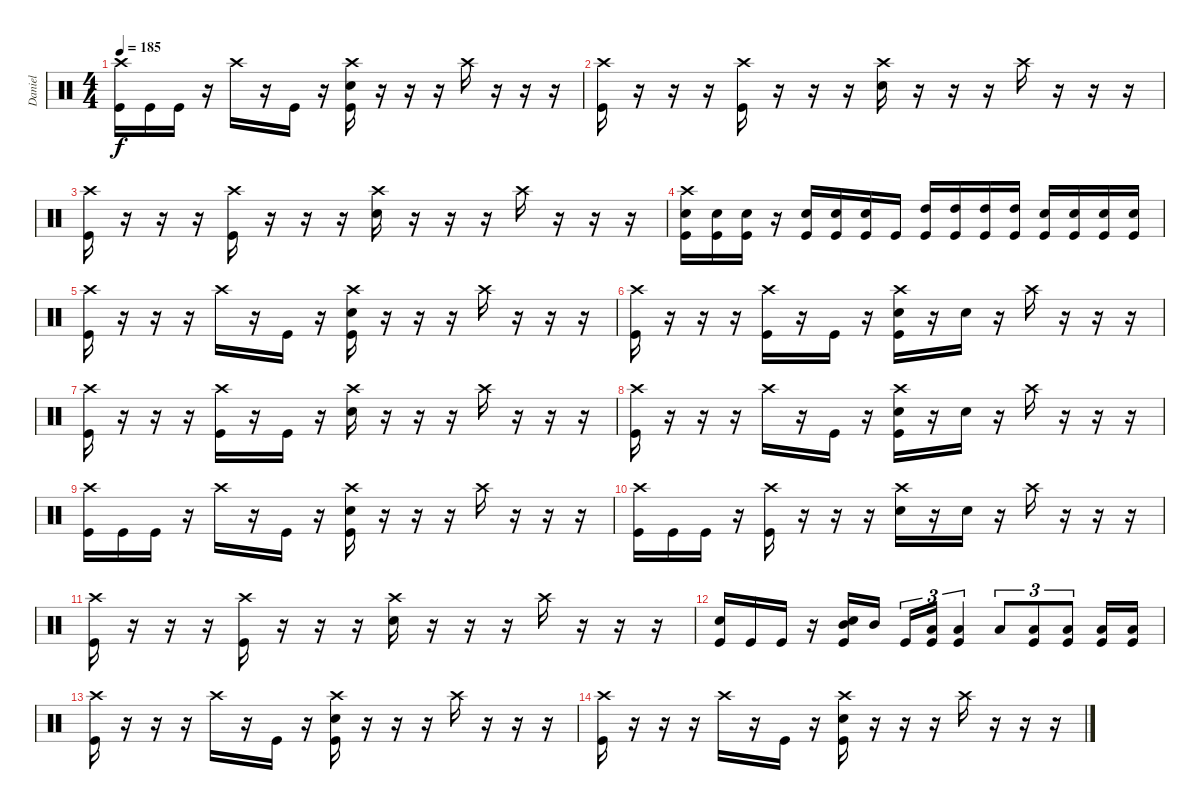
\track ("Daniel" "Daniel") {instrument percussion}
\staff {score}
\articulation defaults
\ts (4 4)
\tempo 185
\clef neutral
\ks c
("Crash high (hit)" "Kick (hit)").16{dy f volume 9} "Kick (hit)".16 "Kick (hit)".16 r.16 "Crash high (hit)".16 r.16 "Kick (hit)".16 r.16 ("Crash high (hit)" "Snare (hit) 2" "Kick (hit)").16 r.16 r.16 r.16 "Crash high (hit)".16 r.16 r.16 r.16 |
("Crash high (hit)" "Kick (hit)").16 r.16 r.16 r.16 ("Crash high (hit)" "Kick (hit)").16 r.16 r.16 r.16 ("Crash high (hit)" "Snare (hit) 2").16 r.16 r.16 r.16 "Crash high (hit)".16 r.16 r.16 r.16 |
("Crash high (hit)" "Kick (hit)").16 r.16 r.16 r.16 ("Crash high (hit)" "Kick (hit)").16 r.16 r.16 r.16 ("Crash high (hit)" "Snare (hit) 2").16 r.16 r.16 r.16 "Crash high (hit)".16 r.16 r.16 r.16 |
("Crash high (hit)" "Snare (hit) 2" "Kick (hit)").16 ("Snare (hit) 2" "Kick (hit)").16 ("Snare (hit) 2" "Kick (hit)").16 r.16 ("Snare (hit) 2" "Kick (hit)").16 ("Snare (hit) 2" "Kick (hit)").16 ("Snare (hit) 2" "Kick (hit)").16 "Kick (hit)".16 ("High Tom (hit)" "Kick (hit)").16 ("High Tom (hit)" "Kick (hit)").16 ("High Tom (hit)" "Kick (hit)").16 ("High Tom (hit)" "Kick (hit)").16 ("Snare (hit) 2" "Kick (hit)").16 ("Snare (hit) 2" "Kick (hit)").16 ("Snare (hit) 2" "Kick (hit)").16 ("Snare (hit) 2" "Kick (hit)").16 |
("Crash high (hit)" "Kick (hit)").16{volume 7} r.16 r.16 r.16 "Crash high (hit)".16 r.16 "Kick (hit)".16 r.16 ("Crash high (hit)" "Snare (hit) 2" "Kick (hit)").16 r.16 r.16 r.16 "Crash high (hit)".16 r.16 r.16 r.16 |
("Crash high (hit)" "Kick (hit)").16 r.16 r.16 r.16 ("Crash high (hit)" "Kick (hit)").16 r.16 "Kick (hit)".16 r.16 ("Crash high (hit)" "Snare (hit) 2" "Kick (hit)").16 r.16 "Snare (hit) 2".16 r.16 "Crash high (hit)".16 r.16 r.16 r.16 |
("Crash high (hit)" "Kick (hit)").16 r.16 r.16 r.16 ("Crash high (hit)" "Kick (hit)").16 r.16 "Kick (hit)".16 r.16 ("Crash high (hit)" "Snare (hit) 2").16 r.16 r.16 r.16 "Crash high (hit)".16 r.16 r.16 r.16 |
("Crash high (hit)" "Kick (hit)").16 r.16 r.16 r.16 "Crash high (hit)".16 r.16 "Kick (hit)".16 r.16 ("Crash high (hit)" "Snare (hit) 2" "Kick (hit)").16 r.16 "Snare (hit) 2".16 r.16 "Crash high (hit)".16 r.16 r.16 r.16 |
("Crash high (hit)" "Kick (hit)").16{volume 5} "Kick (hit)".16 "Kick (hit)".16 r.16 "Crash high (hit)".16 r.16 "Kick (hit)".16 r.16 ("Crash high (hit)" "Snare (hit) 2" "Kick (hit)").16 r.16 r.16 r.16 "Crash high (hit)".16 r.16 r.16 r.16 |
("Crash high (hit)" "Kick (hit)").16 "Kick (hit)".16 "Kick (hit)".16 r.16 ("Crash high (hit)" "Kick (hit)").16 r.16 r.16 r.16 ("Crash high (hit)" "Snare (hit) 2").16 r.16 "Snare (hit) 2".16 r.16 "Crash high (hit)".16 r.16 r.16 r.16 |
("Crash high (hit)" "Kick (hit)").16 r.16 r.16 r.16 ("Crash high (hit)" "Kick (hit)").16 r.16 r.16 r.16 ("Crash high (hit)" "Snare (hit) 2").16 r.16 r.16 r.16 "Crash high (hit)".16 r.16 r.16 r.16 |
("Snare (hit) 2" "Kick (hit)").16 "Kick (hit)".16 "Kick (hit)".16 r.16 ("Snare (hit) 2" "Mid Tom (hit)" "Kick (hit)").16 "Mid Tom (hit)".16 "Kick (hit)".16{tu (3 2)} ("Low Tom (hit)" "Kick (hit)").16{tu (3 2)} ("Low Tom (hit)" "Kick (hit)").4{tu (3 2)} "Low Tom (hit)".8{tu (3 2)} ("Low Tom (hit)" "Kick (hit)").8{tu (3 2)} ("Low Tom (hit)" "Kick (hit)").8{tu (3 2)} ("Low Tom (hit)" "Kick (hit)").16 ("Low Tom (hit)" "Kick (hit)").16 |
("Crash high (hit)" "Kick (hit)").16{volume 0} r.16 r.16 r.16 "Crash high (hit)".16 r.16 "Kick (hit)".16 r.16 ("Crash high (hit)" "Snare (hit) 2" "Kick (hit)").16 r.16 r.16 r.16 "Crash high (hit)".16 r.16 r.16 r.16 |
("Crash high (hit)" "Kick (hit)").16 r.16 r.16 r.16 "Crash high (hit)".16 r.16 "Kick (hit)".16 r.16 ("Crash high (hit)" "Snare (hit) 2" "Kick (hit)").16 r.16 r.16 r.16 "Crash high (hit)".16 r.16 r.16 r.16
